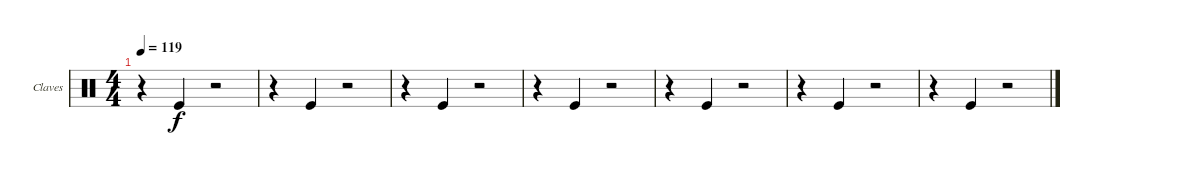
\defaultSystemsLayout 4
\bracketExtendMode groupsimilarinstruments
\useSystemSignSeparator
\multiBarRest
\multiTrackTrackNamePolicy allsystems
\firstSystemTrackNameMode fullname
\firstSystemTrackNameOrientation horizontal
\otherSystemsTrackNameOrientation horizontal
\defaultBarNumberDisplay FirstOfSystem
\track ("Claves" "Claves") {multiBarRest instrument percussion}
\staff {score}
\articulation defaults
\ts (4 4)
\tempo 119
\clef neutral
\ks aminor
r.4{dy f} "Kick (hit)".4 r.2 |
r.4 "Kick (hit)".4 r.2 |
r.4 "Kick (hit)".4 r.2 |
r.4 "Kick (hit)".4 r.2 |
r.4 "Kick (hit)".4 r.2 |
r.4 "Kick (hit)".4 r.2 |
r.4 "Kick (hit)".4 r.2
